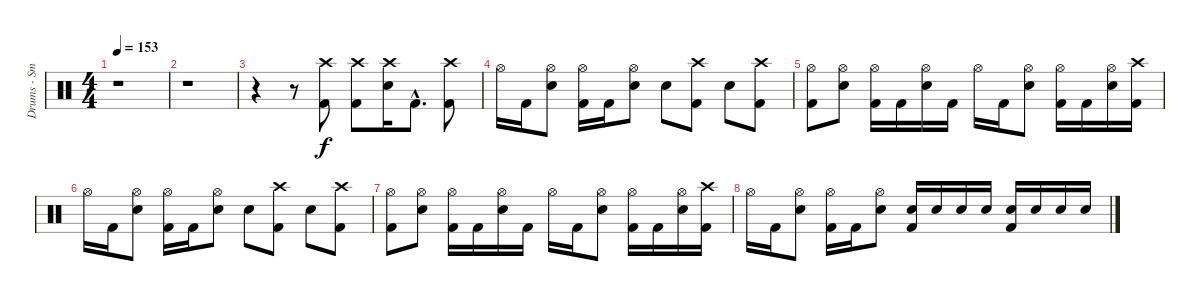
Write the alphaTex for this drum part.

\track ("Drums - Smelly" "Drums - Sm") {instrument percussion}
\staff {score}
\articulation defaults
\ts (4 4)
\tempo 153
\clef neutral
\ks c
r.1{dy f} |
r.1 |
r.4 r.8 ("Crash high (hit)" "Kick (hit) 2").8 ("Crash high (hit)" "Kick (hit) 2").8 ("Crash high (hit)" "Snare (hit) 2").16 "Kick (hit) 2"{hac}.8{d} ("Crash high (hit)" "Kick (hit) 2").8 |
"Hi-Hat (open)".16 "Kick (hit) 2".16 ("Hi-Hat (open)" "Snare (hit) 2").8 ("Hi-Hat (open)" "Kick (hit) 2").16 "Kick (hit) 2".16 ("Hi-Hat (open)" "Snare (hit) 2").8 "Snare (hit) 2".8 ("Crash high (hit)" "Kick (hit) 2").8 "Snare (hit) 2".8 ("Crash high (hit)" "Kick (hit) 2").8 |
("Hi-Hat (open)" "Kick (hit) 2").8 ("Hi-Hat (open)" "Snare (hit) 2").8 ("Hi-Hat (open)" "Kick (hit) 2").16 "Kick (hit) 2".16 ("Hi-Hat (open)" "Snare (hit) 2").16 "Kick (hit) 2".16 "Hi-Hat (open)".16 "Kick (hit) 2".16 ("Hi-Hat (open)" "Snare (hit) 2").8 ("Hi-Hat (open)" "Kick (hit) 2").16 "Kick (hit) 2".16 ("Hi-Hat (open)" "Snare (hit) 2").16 ("Crash high (hit)" "Kick (hit) 2").16 |
"Hi-Hat (open)".16 "Kick (hit) 2".16 ("Hi-Hat (open)" "Snare (hit) 2").8 ("Hi-Hat (open)" "Kick (hit) 2").16 "Kick (hit) 2".16 ("Hi-Hat (open)" "Snare (hit) 2").8 "Snare (hit) 2".8 ("Crash high (hit)" "Kick (hit) 2").8 "Snare (hit) 2".8 ("Crash high (hit)" "Kick (hit) 2").8 |
("Hi-Hat (open)" "Kick (hit) 2").8 ("Hi-Hat (open)" "Snare (hit) 2").8 ("Hi-Hat (open)" "Kick (hit) 2").16 "Kick (hit) 2".16 ("Hi-Hat (open)" "Snare (hit) 2").16 "Kick (hit) 2".16 "Hi-Hat (open)".16 "Kick (hit) 2".16 ("Hi-Hat (open)" "Snare (hit) 2").8 ("Hi-Hat (open)" "Kick (hit) 2").16 "Kick (hit) 2".16 ("Hi-Hat (open)" "Snare (hit) 2").16 ("Crash high (hit)" "Kick (hit) 2").16 |
"Hi-Hat (open)".16 "Kick (hit) 2".16 ("Hi-Hat (open)" "Snare (hit) 2").8 ("Hi-Hat (open)" "Kick (hit) 2").16 "Kick (hit) 2".16 ("Hi-Hat (open)" "Snare (hit) 2").8 ("Snare (hit) 2" "Kick (hit) 2").16 "Snare (hit) 2".16 "Snare (hit) 2".16 "Snare (hit) 2".16 ("Snare (hit) 2" "Kick (hit) 2").16 "Snare (hit) 2".16 "Snare (hit) 2".16 "Snare (hit) 2".16
